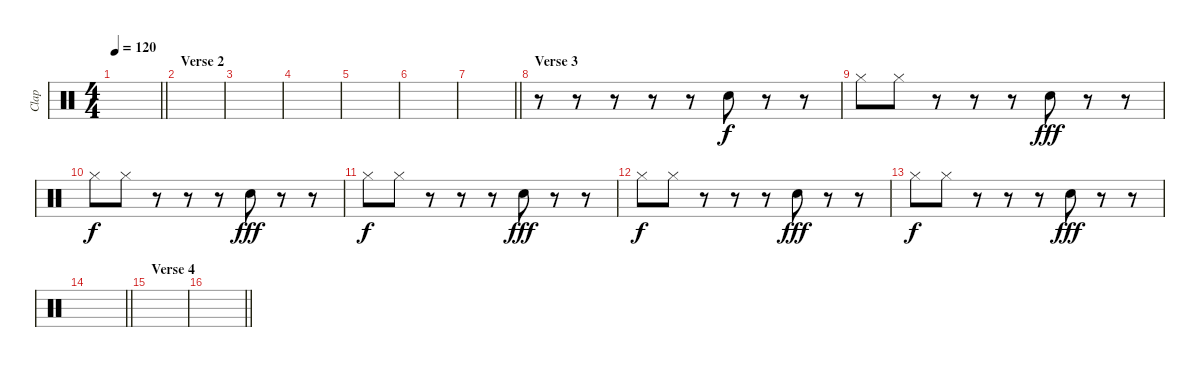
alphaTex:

\track ("Clap" "Clap") {instrument percussion}
\staff {score}
\articulation defaults
\ts (4 4)
\tempo 120
\clef neutral
\barLineRight lightlight
\ks c
|
\section ("" "Verse 2")
|
|
|
|
|
\barLineRight lightlight
|
\section ("" "Verse 3")
r.8 r.8 r.8 r.8 r.8 "Hand Clap (hit)".8 r.8 r.8 |
"Hi-Hat (closed)".8{dy f} "Hi-Hat (closed)".8 r.8 r.8 r.8 "Hand Clap (hit)".8{dy fff} r.8 r.8 |
"Hi-Hat (closed)".8{dy f} "Hi-Hat (closed)".8 r.8 r.8 r.8 "Hand Clap (hit)".8{dy fff} r.8 r.8 |
"Hi-Hat (closed)".8{dy f} "Hi-Hat (closed)".8 r.8 r.8 r.8 "Hand Clap (hit)".8{dy fff} r.8 r.8 |
"Hi-Hat (closed)".8{dy f} "Hi-Hat (closed)".8 r.8 r.8 r.8 "Hand Clap (hit)".8{dy fff} r.8 r.8 |
"Hi-Hat (closed)".8{dy f} "Hi-Hat (closed)".8 r.8 r.8 r.8 "Hand Clap (hit)".8{dy fff} r.8 r.8 |
\barLineRight lightlight
|
\section ("" "Verse 4")
|
\barLineRight lightlight
